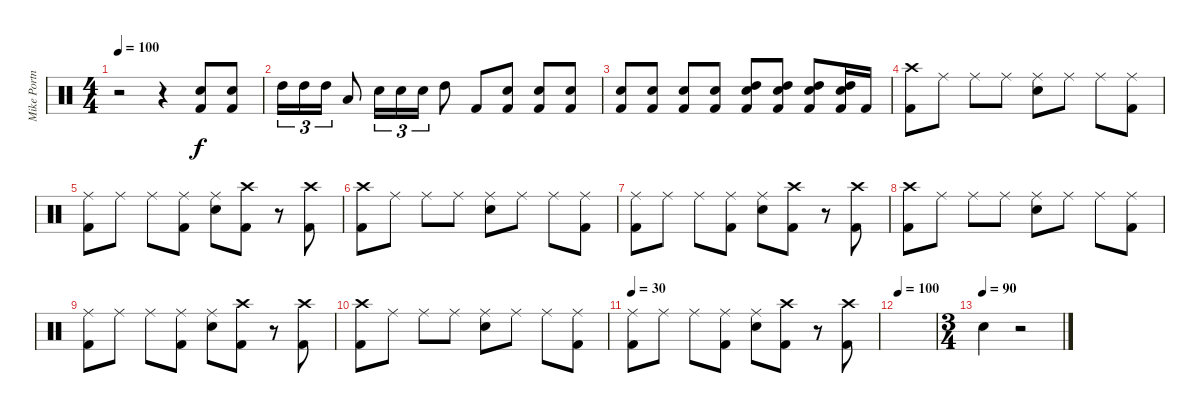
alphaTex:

\track ("Mike Portnoy" "Mike Portn") {instrument percussion}
\staff {score}
\articulation defaults
\ts (4 4)
\tempo 100
\clef neutral
\ks c
r.2{dy f} r.4 ("Electric Snare (hit)" "Kick (hit) 2").8 ("Electric Snare (hit)" "Kick (hit) 2").8 |
"High Tom (hit)".16{tu (3 2)} "High Tom (hit)".16{tu (3 2)} "High Tom (hit)".16{tu (3 2)} "Low Tom (hit)".8 "Snare (hit) 2".16{tu (3 2)} "Snare (hit) 2".16{tu (3 2)} "Snare (hit) 2".16{tu (3 2)} "High Tom (hit)".8 "Kick (hit) 2".8 ("Snare (hit) 2" "Kick (hit) 2").8 ("Snare (hit) 2" "Kick (hit) 2").8 ("Snare (hit) 2" "Kick (hit) 2").8 |
("Snare (hit) 2" "Kick (hit) 2").8 ("Snare (hit) 2" "Kick (hit) 2").8 ("Snare (hit) 2" "Kick (hit) 2").8 ("Snare (hit) 2" "Kick (hit) 2").8 ("High Tom (hit)" "Snare (hit) 2" "Kick (hit) 2").8 ("High Tom (hit)" "Snare (hit) 2" "Kick (hit) 2").8 ("High Tom (hit)" "Snare (hit) 2" "Kick (hit) 2").8 ("High Tom (hit)" "Snare (hit) 2" "Kick (hit) 2").16 "Kick (hit) 2".16 |
("Crash high (hit)" "Kick (hit) 2").8 "Ride (middle)".8 "Ride (middle)".8 "Ride (middle)".8 ("Ride (middle)" "Snare (hit) 2").8 "Ride (middle)".8 "Ride (middle)".8 ("Ride (middle)" "Kick (hit) 2").8 |
("Ride (middle)" "Kick (hit) 2").8 "Ride (middle)".8 "Ride (middle)".8 ("Ride (middle)" "Kick (hit) 2").8 ("Ride (middle)" "Snare (hit) 2").8 ("Crash high (hit)" "Kick (hit) 2").8 r.8 ("Crash high (hit)" "Kick (hit) 2").8 |
("Crash high (hit)" "Kick (hit) 2").8 "Ride (middle)".8 "Ride (middle)".8 "Ride (middle)".8 ("Ride (middle)" "Snare (hit) 2").8 "Ride (middle)".8 "Ride (middle)".8 ("Ride (middle)" "Kick (hit) 2").8 |
("Ride (middle)" "Kick (hit) 2").8 "Ride (middle)".8 "Ride (middle)".8 ("Ride (middle)" "Kick (hit) 2").8 ("Ride (middle)" "Snare (hit) 2").8 ("Crash high (hit)" "Kick (hit) 2").8 r.8 ("Crash high (hit)" "Kick (hit) 2").8 |
("Crash high (hit)" "Kick (hit) 2").8 "Ride (middle)".8 "Ride (middle)".8 "Ride (middle)".8 ("Ride (middle)" "Snare (hit) 2").8 "Ride (middle)".8 "Ride (middle)".8 ("Ride (middle)" "Kick (hit) 2").8 |
("Ride (middle)" "Kick (hit) 2").8 "Ride (middle)".8 "Ride (middle)".8 ("Ride (middle)" "Kick (hit) 2").8 ("Ride (middle)" "Snare (hit) 2").8 ("Crash high (hit)" "Kick (hit) 2").8 r.8 ("Crash high (hit)" "Kick (hit) 2").8 |
("Crash high (hit)" "Kick (hit) 2").8 "Ride (middle)".8 "Ride (middle)".8 "Ride (middle)".8 ("Ride (middle)" "Snare (hit) 2").8 "Ride (middle)".8 "Ride (middle)".8 ("Ride (middle)" "Kick (hit) 2").8 |
\tempo 30
("Ride (middle)" "Kick (hit) 2").8 "Ride (middle)".8 "Ride (middle)".8 ("Ride (middle)" "Kick (hit) 2").8 ("Ride (middle)" "Snare (hit) 2").8 ("Crash high (hit)" "Kick (hit) 2").8 r.8 ("Crash high (hit)" "Kick (hit) 2").8 |
\tempo 100
|
\ts (3 4)
\tempo (90)
"Electric Snare (hit)".4 r.2
